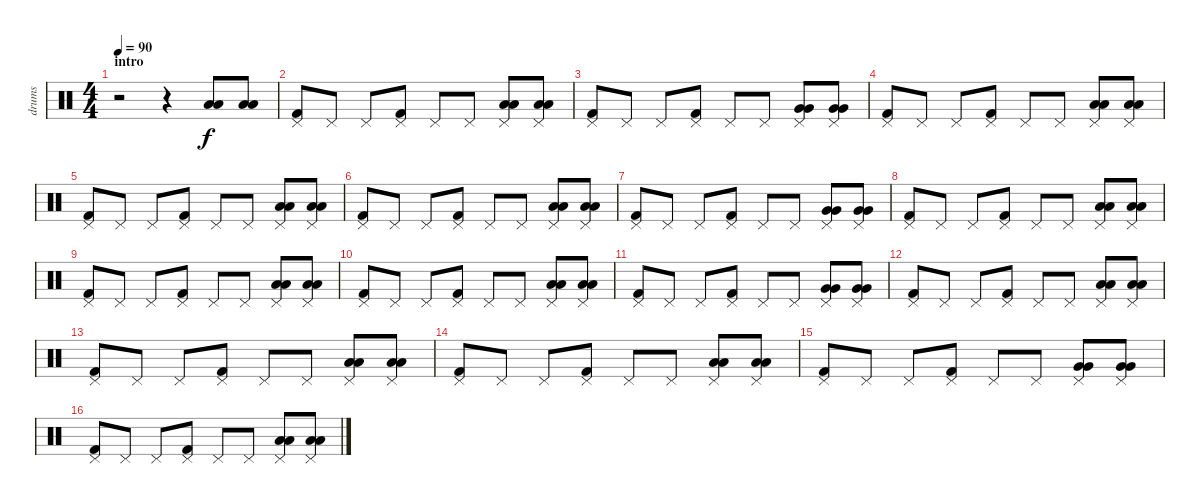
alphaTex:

\track ("drums" "drums") {instrument percussion}
\staff {score}
\articulation defaults
\ts (4 4)
\section ("" "intro")
\tempo 90
\clef neutral
\ks c
r.2{dy f} r.4 ("Low Floor Tom (hit)" "Low Floor Tom (hit)").8 ("Low Floor Tom (hit)" "Low Floor Tom (hit)").8 |
("Kick (hit) 2" "Pedal Hi-Hat (hit)").8 "Pedal Hi-Hat (hit)".8 "Pedal Hi-Hat (hit)".8 ("Kick (hit) 2" "Pedal Hi-Hat (hit)").8 "Pedal Hi-Hat (hit)".8 "Pedal Hi-Hat (hit)".8 ("Low Tom (hit)" "Low Tom (hit)" "Pedal Hi-Hat (hit)").8 ("Low Tom (hit)" "Low Tom (hit)" "Pedal Hi-Hat (hit)").8 |
("Kick (hit) 2" "Pedal Hi-Hat (hit)").8 "Pedal Hi-Hat (hit)".8 "Pedal Hi-Hat (hit)".8 ("Kick (hit) 2" "Pedal Hi-Hat (hit)").8 "Pedal Hi-Hat (hit)".8 "Pedal Hi-Hat (hit)".8 ("Very Low Tom (hit)" "Very Low Tom (hit)" "Pedal Hi-Hat (hit)").8 ("Very Low Tom (hit)" "Very Low Tom (hit)" "Pedal Hi-Hat (hit)").8 |
("Kick (hit) 2" "Pedal Hi-Hat (hit)").8 "Pedal Hi-Hat (hit)".8 "Pedal Hi-Hat (hit)".8 ("Kick (hit) 2" "Pedal Hi-Hat (hit)").8 "Pedal Hi-Hat (hit)".8 "Pedal Hi-Hat (hit)".8 ("Low Tom (hit)" "Low Tom (hit)" "Pedal Hi-Hat (hit)").8 ("Low Tom (hit)" "Low Tom (hit)" "Pedal Hi-Hat (hit)").8 |
("Kick (hit) 2" "Pedal Hi-Hat (hit)").8 "Pedal Hi-Hat (hit)".8 "Pedal Hi-Hat (hit)".8 ("Kick (hit) 2" "Pedal Hi-Hat (hit)").8 "Pedal Hi-Hat (hit)".8 "Pedal Hi-Hat (hit)".8 ("Low Floor Tom (hit)" "Low Floor Tom (hit)" "Pedal Hi-Hat (hit)").8 ("Low Floor Tom (hit)" "Low Floor Tom (hit)" "Pedal Hi-Hat (hit)").8 |
("Kick (hit) 2" "Pedal Hi-Hat (hit)").8 "Pedal Hi-Hat (hit)".8 "Pedal Hi-Hat (hit)".8 ("Kick (hit) 2" "Pedal Hi-Hat (hit)").8 "Pedal Hi-Hat (hit)".8 "Pedal Hi-Hat (hit)".8 ("Low Tom (hit)" "Low Tom (hit)" "Pedal Hi-Hat (hit)").8 ("Low Tom (hit)" "Low Tom (hit)" "Pedal Hi-Hat (hit)").8 |
("Kick (hit) 2" "Pedal Hi-Hat (hit)").8 "Pedal Hi-Hat (hit)".8 "Pedal Hi-Hat (hit)".8 ("Kick (hit) 2" "Pedal Hi-Hat (hit)").8 "Pedal Hi-Hat (hit)".8 "Pedal Hi-Hat (hit)".8 ("Very Low Tom (hit)" "Very Low Tom (hit)" "Pedal Hi-Hat (hit)").8 ("Very Low Tom (hit)" "Very Low Tom (hit)" "Pedal Hi-Hat (hit)").8 |
("Kick (hit) 2" "Pedal Hi-Hat (hit)").8 "Pedal Hi-Hat (hit)".8 "Pedal Hi-Hat (hit)".8 ("Kick (hit) 2" "Pedal Hi-Hat (hit)").8 "Pedal Hi-Hat (hit)".8 "Pedal Hi-Hat (hit)".8 ("Low Tom (hit)" "Low Tom (hit)" "Pedal Hi-Hat (hit)").8 ("Low Tom (hit)" "Low Tom (hit)" "Pedal Hi-Hat (hit)").8 |
("Kick (hit) 2" "Pedal Hi-Hat (hit)").8 "Pedal Hi-Hat (hit)".8 "Pedal Hi-Hat (hit)".8 ("Kick (hit) 2" "Pedal Hi-Hat (hit)").8 "Pedal Hi-Hat (hit)".8 "Pedal Hi-Hat (hit)".8 ("Low Floor Tom (hit)" "Low Floor Tom (hit)" "Pedal Hi-Hat (hit)").8 ("Low Floor Tom (hit)" "Low Floor Tom (hit)" "Pedal Hi-Hat (hit)").8 |
("Kick (hit) 2" "Pedal Hi-Hat (hit)").8 "Pedal Hi-Hat (hit)".8 "Pedal Hi-Hat (hit)".8 ("Kick (hit) 2" "Pedal Hi-Hat (hit)").8 "Pedal Hi-Hat (hit)".8 "Pedal Hi-Hat (hit)".8 ("Low Tom (hit)" "Low Tom (hit)" "Pedal Hi-Hat (hit)").8 ("Low Tom (hit)" "Low Tom (hit)" "Pedal Hi-Hat (hit)").8 |
("Kick (hit) 2" "Pedal Hi-Hat (hit)").8 "Pedal Hi-Hat (hit)".8 "Pedal Hi-Hat (hit)".8 ("Kick (hit) 2" "Pedal Hi-Hat (hit)").8 "Pedal Hi-Hat (hit)".8 "Pedal Hi-Hat (hit)".8 ("Very Low Tom (hit)" "Very Low Tom (hit)" "Pedal Hi-Hat (hit)").8 ("Very Low Tom (hit)" "Very Low Tom (hit)" "Pedal Hi-Hat (hit)").8 |
("Kick (hit) 2" "Pedal Hi-Hat (hit)").8 "Pedal Hi-Hat (hit)".8 "Pedal Hi-Hat (hit)".8 ("Kick (hit) 2" "Pedal Hi-Hat (hit)").8 "Pedal Hi-Hat (hit)".8 "Pedal Hi-Hat (hit)".8 ("Low Tom (hit)" "Low Tom (hit)" "Pedal Hi-Hat (hit)").8 ("Low Tom (hit)" "Low Tom (hit)" "Pedal Hi-Hat (hit)").8 |
("Kick (hit) 2" "Pedal Hi-Hat (hit)").8 "Pedal Hi-Hat (hit)".8 "Pedal Hi-Hat (hit)".8 ("Kick (hit) 2" "Pedal Hi-Hat (hit)").8 "Pedal Hi-Hat (hit)".8 "Pedal Hi-Hat (hit)".8 ("Low Floor Tom (hit)" "Low Floor Tom (hit)" "Pedal Hi-Hat (hit)").8 ("Low Floor Tom (hit)" "Low Floor Tom (hit)" "Pedal Hi-Hat (hit)").8 |
("Kick (hit) 2" "Pedal Hi-Hat (hit)").8 "Pedal Hi-Hat (hit)".8 "Pedal Hi-Hat (hit)".8 ("Kick (hit) 2" "Pedal Hi-Hat (hit)").8 "Pedal Hi-Hat (hit)".8 "Pedal Hi-Hat (hit)".8 ("Low Tom (hit)" "Low Tom (hit)" "Pedal Hi-Hat (hit)").8 ("Low Tom (hit)" "Low Tom (hit)" "Pedal Hi-Hat (hit)").8 |
("Kick (hit) 2" "Pedal Hi-Hat (hit)").8 "Pedal Hi-Hat (hit)".8 "Pedal Hi-Hat (hit)".8 ("Kick (hit) 2" "Pedal Hi-Hat (hit)").8 "Pedal Hi-Hat (hit)".8 "Pedal Hi-Hat (hit)".8 ("Very Low Tom (hit)" "Very Low Tom (hit)" "Pedal Hi-Hat (hit)").8 ("Very Low Tom (hit)" "Very Low Tom (hit)" "Pedal Hi-Hat (hit)").8 |
("Kick (hit) 2" "Pedal Hi-Hat (hit)").8 "Pedal Hi-Hat (hit)".8 "Pedal Hi-Hat (hit)".8 ("Kick (hit) 2" "Pedal Hi-Hat (hit)").8 "Pedal Hi-Hat (hit)".8 "Pedal Hi-Hat (hit)".8 ("Low Tom (hit)" "Low Tom (hit)" "Pedal Hi-Hat (hit)").8 ("Low Tom (hit)" "Low Tom (hit)" "Pedal Hi-Hat (hit)").8
